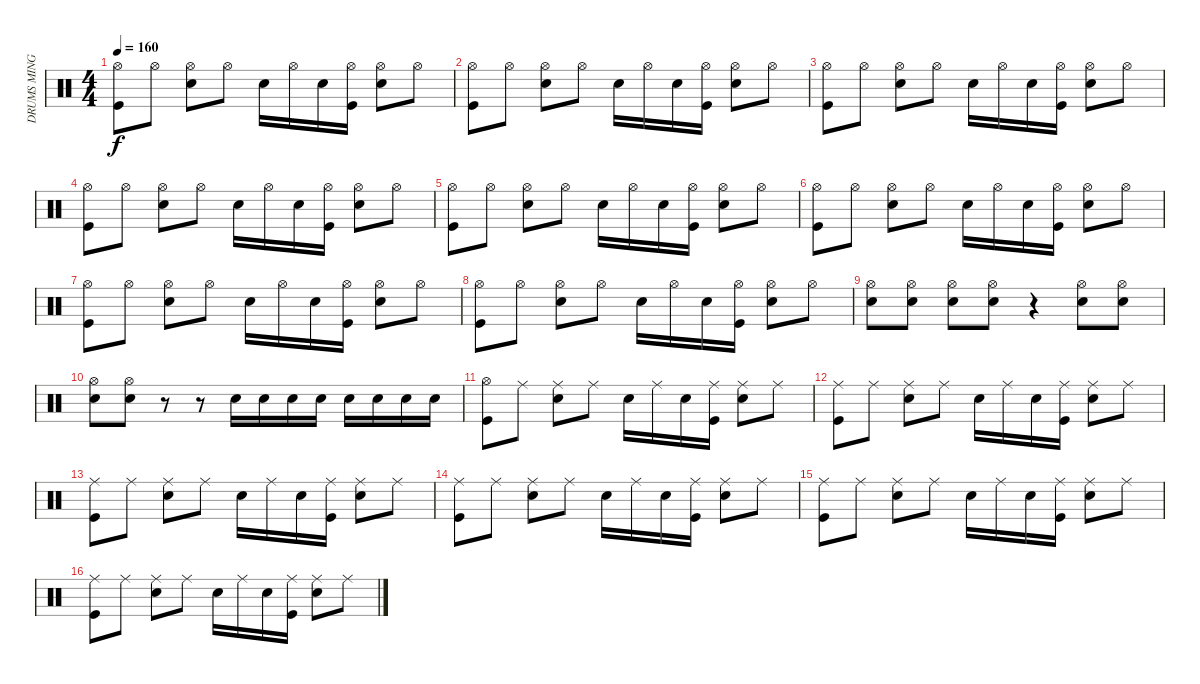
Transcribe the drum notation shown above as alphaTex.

\track ("DRUMS MING" "DRUMS MING") {instrument percussion}
\staff {score}
\articulation defaults
\ts (4 4)
\tempo 160
\clef neutral
\ks c
("Hi-Hat (open)" "Kick (hit)").8{dy f} "Hi-Hat (open)".8 ("Hi-Hat (open)" "Snare (hit) 2").8 "Hi-Hat (open)".8 "Snare (hit) 2".16 "Hi-Hat (open)".16 "Snare (hit) 2".16 ("Hi-Hat (open)" "Kick (hit)").16 ("Hi-Hat (open)" "Snare (hit) 2").8 "Hi-Hat (open)".8 |
("Hi-Hat (open)" "Kick (hit)").8 "Hi-Hat (open)".8 ("Hi-Hat (open)" "Snare (hit) 2").8 "Hi-Hat (open)".8 "Snare (hit) 2".16 "Hi-Hat (open)".16 "Snare (hit) 2".16 ("Hi-Hat (open)" "Kick (hit)").16 ("Hi-Hat (open)" "Snare (hit) 2").8 "Hi-Hat (open)".8 |
("Hi-Hat (open)" "Kick (hit)").8 "Hi-Hat (open)".8 ("Hi-Hat (open)" "Snare (hit) 2").8 "Hi-Hat (open)".8 "Snare (hit) 2".16 "Hi-Hat (open)".16 "Snare (hit) 2".16 ("Hi-Hat (open)" "Kick (hit)").16 ("Hi-Hat (open)" "Snare (hit) 2").8 "Hi-Hat (open)".8 |
("Hi-Hat (open)" "Kick (hit)").8 "Hi-Hat (open)".8 ("Hi-Hat (open)" "Snare (hit) 2").8 "Hi-Hat (open)".8 "Snare (hit) 2".16 "Hi-Hat (open)".16 "Snare (hit) 2".16 ("Hi-Hat (open)" "Kick (hit)").16 ("Hi-Hat (open)" "Snare (hit) 2").8 "Hi-Hat (open)".8 |
("Hi-Hat (open)" "Kick (hit)").8 "Hi-Hat (open)".8 ("Hi-Hat (open)" "Snare (hit) 2").8 "Hi-Hat (open)".8 "Snare (hit) 2".16 "Hi-Hat (open)".16 "Snare (hit) 2".16 ("Hi-Hat (open)" "Kick (hit)").16 ("Hi-Hat (open)" "Snare (hit) 2").8 "Hi-Hat (open)".8 |
("Hi-Hat (open)" "Kick (hit)").8 "Hi-Hat (open)".8 ("Hi-Hat (open)" "Snare (hit) 2").8 "Hi-Hat (open)".8 "Snare (hit) 2".16 "Hi-Hat (open)".16 "Snare (hit) 2".16 ("Hi-Hat (open)" "Kick (hit)").16 ("Hi-Hat (open)" "Snare (hit) 2").8 "Hi-Hat (open)".8 |
("Hi-Hat (open)" "Kick (hit)").8 "Hi-Hat (open)".8 ("Hi-Hat (open)" "Snare (hit) 2").8 "Hi-Hat (open)".8 "Snare (hit) 2".16 "Hi-Hat (open)".16 "Snare (hit) 2".16 ("Hi-Hat (open)" "Kick (hit)").16 ("Hi-Hat (open)" "Snare (hit) 2").8 "Hi-Hat (open)".8 |
("Hi-Hat (open)" "Kick (hit)").8 "Hi-Hat (open)".8 ("Hi-Hat (open)" "Snare (hit) 2").8 "Hi-Hat (open)".8 "Snare (hit) 2".16 "Hi-Hat (open)".16 "Snare (hit) 2".16 ("Hi-Hat (open)" "Kick (hit)").16 ("Hi-Hat (open)" "Snare (hit) 2").8 "Hi-Hat (open)".8 |
("Hi-Hat (open)" "Snare (hit) 2").8 ("Hi-Hat (open)" "Snare (hit) 2").8 ("Hi-Hat (open)" "Snare (hit) 2").8 ("Hi-Hat (open)" "Snare (hit) 2").8 r.4 ("Hi-Hat (open)" "Snare (hit) 2").8 ("Snare (hit) 2" "Hi-Hat (open)").8 |
("Snare (hit) 2" "Hi-Hat (open)").8 ("Snare (hit) 2" "Hi-Hat (open)").8 r.8 r.8 "Snare (hit) 2".16 "Snare (hit) 2".16 "Snare (hit) 2".16 "Snare (hit) 2".16 "Snare (hit) 2".16 "Snare (hit) 2".16 "Snare (hit) 2".16 "Snare (hit) 2".16 |
("Hi-Hat (open)" "Kick (hit)").8 "Ride (middle)".8 ("Ride (middle)" "Snare (hit) 2").8 "Ride (middle)".8 "Snare (hit) 2".16 "Ride (middle)".16 "Snare (hit) 2".16 ("Ride (middle)" "Kick (hit)").16 ("Ride (middle)" "Snare (hit) 2").8 "Ride (middle)".8 |
("Ride (middle)" "Kick (hit)").8 "Ride (middle)".8 ("Ride (middle)" "Snare (hit) 2").8 "Ride (middle)".8 "Snare (hit) 2".16 "Ride (middle)".16 "Snare (hit) 2".16 ("Ride (middle)" "Kick (hit)").16 ("Ride (middle)" "Snare (hit) 2").8 "Ride (middle)".8 |
("Ride (middle)" "Kick (hit)").8 "Ride (middle)".8 ("Ride (middle)" "Snare (hit) 2").8 "Ride (middle)".8 "Snare (hit) 2".16 "Ride (middle)".16 "Snare (hit) 2".16 ("Ride (middle)" "Kick (hit)").16 ("Ride (middle)" "Snare (hit) 2").8 "Ride (middle)".8 |
("Ride (middle)" "Kick (hit)").8 "Ride (middle)".8 ("Ride (middle)" "Snare (hit) 2").8 "Ride (middle)".8 "Snare (hit) 2".16 "Ride (middle)".16 "Snare (hit) 2".16 ("Ride (middle)" "Kick (hit)").16 ("Ride (middle)" "Snare (hit) 2").8 "Ride (middle)".8 |
("Ride (middle)" "Kick (hit)").8 "Ride (middle)".8 ("Ride (middle)" "Snare (hit) 2").8 "Ride (middle)".8 "Snare (hit) 2".16 "Ride (middle)".16 "Snare (hit) 2".16 ("Ride (middle)" "Kick (hit)").16 ("Ride (middle)" "Snare (hit) 2").8 "Ride (middle)".8 |
("Ride (middle)" "Kick (hit)").8 "Ride (middle)".8 ("Ride (middle)" "Snare (hit) 2").8 "Ride (middle)".8 "Snare (hit) 2".16 "Ride (middle)".16 "Snare (hit) 2".16 ("Ride (middle)" "Kick (hit)").16 ("Ride (middle)" "Snare (hit) 2").8 "Ride (middle)".8
